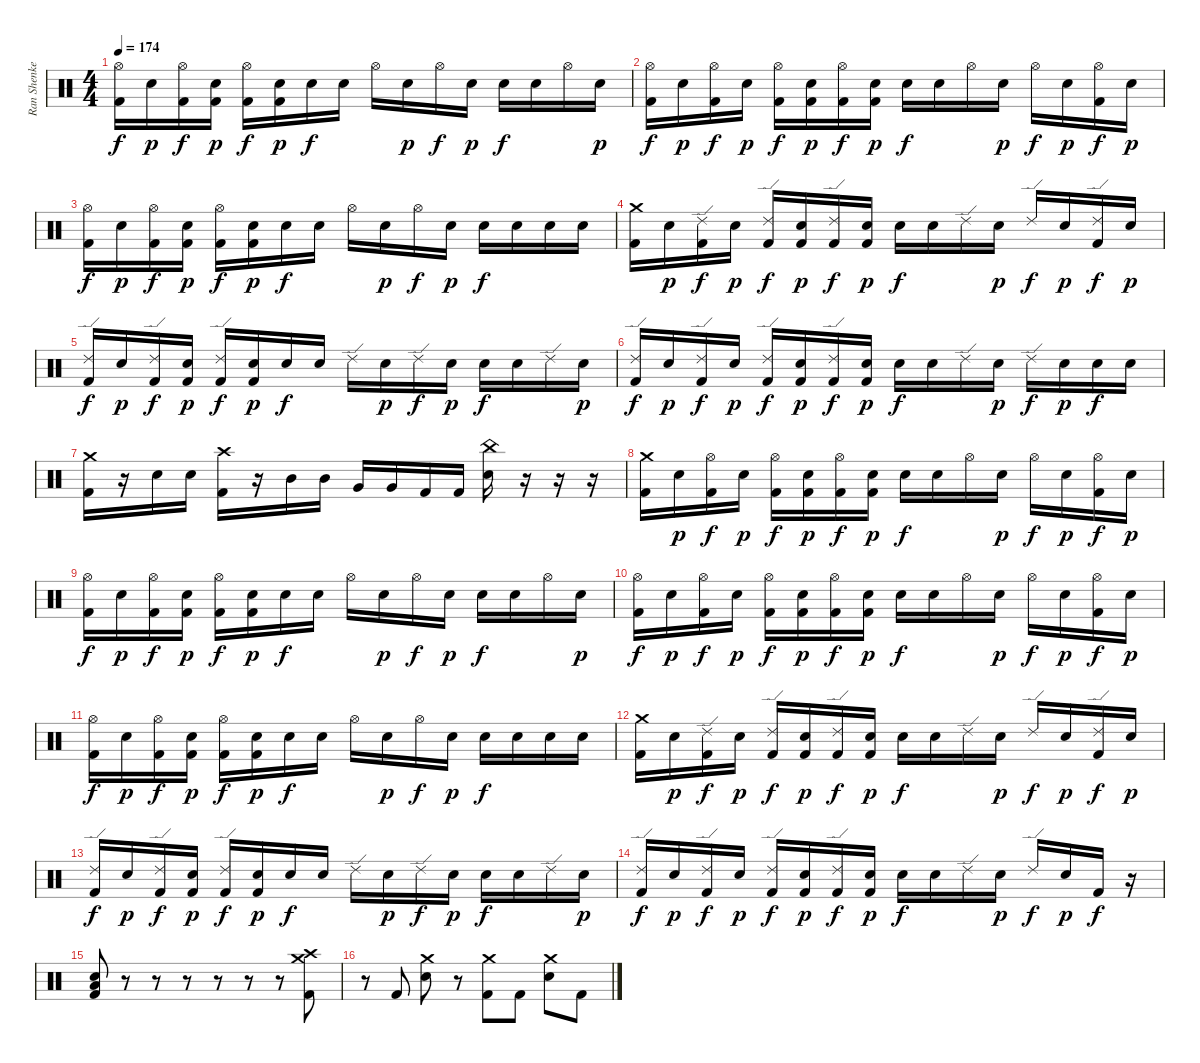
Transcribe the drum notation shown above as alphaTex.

\track ("Ran Shenkerman" "Ran Shenke") {instrument percussion}
\staff {score}
\articulation defaults
\ts (4 4)
\tempo 174
\clef neutral
\ks c
("Hi-Hat (open)" "Kick (hit) 2").16{dy f} "Snare (hit) 2".16{dy p} ("Hi-Hat (open)" "Kick (hit) 2").16{dy f} ("Snare (hit) 2" "Kick (hit) 2").16{dy p} ("Hi-Hat (open)" "Kick (hit) 2").16{dy f} ("Snare (hit) 2" "Kick (hit) 2").16{dy p} "Snare (hit) 2".16{dy f} "Snare (hit) 2".16 "Hi-Hat (open)".16 "Snare (hit) 2".16{dy p} "Hi-Hat (open)".16{dy f} "Snare (hit) 2".16{dy p} "Snare (hit) 2".16{dy f} "Snare (hit) 2".16 "Hi-Hat (open)".16 "Snare (hit) 2".16{dy p} |
("Hi-Hat (open)" "Kick (hit) 2").16{dy f} "Snare (hit) 2".16{dy p} ("Hi-Hat (open)" "Kick (hit) 2").16{dy f} "Snare (hit) 2".16{dy p} ("Hi-Hat (open)" "Kick (hit) 2").16{dy f} ("Snare (hit) 2" "Kick (hit) 2").16{dy p} ("Hi-Hat (open)" "Kick (hit) 2").16{dy f} ("Snare (hit) 2" "Kick (hit) 2").16{dy p} "Snare (hit) 2".16{dy f} "Snare (hit) 2".16 "Hi-Hat (open)".16 "Snare (hit) 2".16{dy p} "Hi-Hat (open)".16{dy f} "Snare (hit) 2".16{dy p} ("Hi-Hat (open)" "Kick (hit) 2").16{dy f} "Snare (hit) 2".16{dy p} |
("Hi-Hat (open)" "Kick (hit) 2").16{dy f} "Snare (hit) 2".16{dy p} ("Hi-Hat (open)" "Kick (hit) 2").16{dy f} ("Snare (hit) 2" "Kick (hit) 2").16{dy p} ("Hi-Hat (open)" "Kick (hit) 2").16{dy f} ("Snare (hit) 2" "Kick (hit) 2").16{dy p} "Snare (hit) 2".16{dy f} "Snare (hit) 2".16 "Hi-Hat (open)".16 "Snare (hit) 2".16{dy p} "Hi-Hat (open)".16{dy f} "Snare (hit) 2".16{dy p} "Snare (hit) 2".16{dy f} "Snare (hit) 2".16 "Snare (hit) 2".16 "Snare (hit) 2".16 |
("Crash medium (hit)" "Kick (hit) 2").16 "Snare (hit) 2".16{dy p} ("Ride (edge) 2" "Kick (hit) 2").16{dy f} "Snare (hit) 2".16{dy p} ("Ride (edge) 2" "Kick (hit) 2").16{dy f} ("Snare (hit) 2" "Kick (hit) 2").16{dy p} ("Ride (edge) 2" "Kick (hit) 2").16{dy f} ("Snare (hit) 2" "Kick (hit) 2").16{dy p} "Snare (hit) 2".16{dy f} "Snare (hit) 2".16 "Ride (edge) 2".16 "Snare (hit) 2".16{dy p} "Ride (edge) 2".16{dy f} "Snare (hit) 2".16{dy p} ("Ride (edge) 2" "Kick (hit) 2").16{dy f} "Snare (hit) 2".16{dy p} |
("Ride (edge) 2" "Kick (hit) 2").16{dy f} "Snare (hit) 2".16{dy p} ("Ride (edge) 2" "Kick (hit) 2").16{dy f} ("Snare (hit) 2" "Kick (hit) 2").16{dy p} ("Ride (edge) 2" "Kick (hit) 2").16{dy f} ("Snare (hit) 2" "Kick (hit) 2").16{dy p} "Snare (hit) 2".16{dy f} "Snare (hit) 2".16 "Ride (edge) 2".16 "Snare (hit) 2".16{dy p} "Ride (edge) 2".16{dy f} "Snare (hit) 2".16{dy p} "Snare (hit) 2".16{dy f} "Snare (hit) 2".16 "Ride (edge) 2".16 "Snare (hit) 2".16{dy p} |
("Ride (edge) 2" "Kick (hit) 2").16{dy f} "Snare (hit) 2".16{dy p} ("Ride (edge) 2" "Kick (hit) 2").16{dy f} "Snare (hit) 2".16{dy p} ("Ride (edge) 2" "Kick (hit) 2").16{dy f} ("Snare (hit) 2" "Kick (hit) 2").16{dy p} ("Ride (edge) 2" "Kick (hit) 2").16{dy f} ("Snare (hit) 2" "Kick (hit) 2").16{dy p} "Snare (hit) 2".16{dy f} "Snare (hit) 2".16 "Ride (edge) 2".16 "Snare (hit) 2".16{dy p} "Ride (edge) 2".16{dy f} "Snare (hit) 2".16{dy p} "Snare (hit) 2".16{dy f} "Snare (hit) 2".16 |
("Crash medium (hit)" "Kick (hit) 2").16 r.16 "Snare (hit) 2".16 "Snare (hit) 2".16 ("Crash high (hit)" "Kick (hit) 2").16 r.16 "Mid Tom (hit)".16 "Mid Tom (hit)".16 "Very Low Tom (hit)".16 "Very Low Tom (hit)".16 "Kick (hit) 2".16 "Kick (hit) 2".16 ("China (hit)" "Snare (hit) 2").16 r.16 r.16 r.16 |
("Crash medium (hit)" "Kick (hit) 2").16 "Snare (hit) 2".16{dy p} ("Hi-Hat (open)" "Kick (hit) 2").16{dy f} "Snare (hit) 2".16{dy p} ("Hi-Hat (open)" "Kick (hit) 2").16{dy f} ("Snare (hit) 2" "Kick (hit) 2").16{dy p} ("Hi-Hat (open)" "Kick (hit) 2").16{dy f} ("Snare (hit) 2" "Kick (hit) 2").16{dy p} "Snare (hit) 2".16{dy f} "Snare (hit) 2".16 "Hi-Hat (open)".16 "Snare (hit) 2".16{dy p} "Hi-Hat (open)".16{dy f} "Snare (hit) 2".16{dy p} ("Hi-Hat (open)" "Kick (hit) 2").16{dy f} "Snare (hit) 2".16{dy p} |
("Hi-Hat (open)" "Kick (hit) 2").16{dy f} "Snare (hit) 2".16{dy p} ("Hi-Hat (open)" "Kick (hit) 2").16{dy f} ("Snare (hit) 2" "Kick (hit) 2").16{dy p} ("Hi-Hat (open)" "Kick (hit) 2").16{dy f} ("Snare (hit) 2" "Kick (hit) 2").16{dy p} "Snare (hit) 2".16{dy f} "Snare (hit) 2".16 "Hi-Hat (open)".16 "Snare (hit) 2".16{dy p} "Hi-Hat (open)".16{dy f} "Snare (hit) 2".16{dy p} "Snare (hit) 2".16{dy f} "Snare (hit) 2".16 "Hi-Hat (open)".16 "Snare (hit) 2".16{dy p} |
("Hi-Hat (open)" "Kick (hit) 2").16{dy f} "Snare (hit) 2".16{dy p} ("Hi-Hat (open)" "Kick (hit) 2").16{dy f} "Snare (hit) 2".16{dy p} ("Hi-Hat (open)" "Kick (hit) 2").16{dy f} ("Snare (hit) 2" "Kick (hit) 2").16{dy p} ("Hi-Hat (open)" "Kick (hit) 2").16{dy f} ("Snare (hit) 2" "Kick (hit) 2").16{dy p} "Snare (hit) 2".16{dy f} "Snare (hit) 2".16 "Hi-Hat (open)".16 "Snare (hit) 2".16{dy p} "Hi-Hat (open)".16{dy f} "Snare (hit) 2".16{dy p} ("Hi-Hat (open)" "Kick (hit) 2").16{dy f} "Snare (hit) 2".16{dy p} |
("Hi-Hat (open)" "Kick (hit) 2").16{dy f} "Snare (hit) 2".16{dy p} ("Hi-Hat (open)" "Kick (hit) 2").16{dy f} ("Snare (hit) 2" "Kick (hit) 2").16{dy p} ("Hi-Hat (open)" "Kick (hit) 2").16{dy f} ("Snare (hit) 2" "Kick (hit) 2").16{dy p} "Snare (hit) 2".16{dy f} "Snare (hit) 2".16 "Hi-Hat (open)".16 "Snare (hit) 2".16{dy p} "Hi-Hat (open)".16{dy f} "Snare (hit) 2".16{dy p} "Snare (hit) 2".16{dy f} "Snare (hit) 2".16 "Snare (hit) 2".16 "Snare (hit) 2".16 |
("Crash medium (hit)" "Kick (hit) 2").16 "Snare (hit) 2".16{dy p} ("Ride (edge) 2" "Kick (hit) 2").16{dy f} "Snare (hit) 2".16{dy p} ("Ride (edge) 2" "Kick (hit) 2").16{dy f} ("Snare (hit) 2" "Kick (hit) 2").16{dy p} ("Ride (edge) 2" "Kick (hit) 2").16{dy f} ("Snare (hit) 2" "Kick (hit) 2").16{dy p} "Snare (hit) 2".16{dy f} "Snare (hit) 2".16 "Ride (edge) 2".16 "Snare (hit) 2".16{dy p} "Ride (edge) 2".16{dy f} "Snare (hit) 2".16{dy p} ("Ride (edge) 2" "Kick (hit) 2").16{dy f} "Snare (hit) 2".16{dy p} |
("Ride (edge) 2" "Kick (hit) 2").16{dy f} "Snare (hit) 2".16{dy p} ("Ride (edge) 2" "Kick (hit) 2").16{dy f} ("Snare (hit) 2" "Kick (hit) 2").16{dy p} ("Ride (edge) 2" "Kick (hit) 2").16{dy f} ("Snare (hit) 2" "Kick (hit) 2").16{dy p} "Snare (hit) 2".16{dy f} "Snare (hit) 2".16 "Ride (edge) 2".16 "Snare (hit) 2".16{dy p} "Ride (edge) 2".16{dy f} "Snare (hit) 2".16{dy p} "Snare (hit) 2".16{dy f} "Snare (hit) 2".16 "Ride (edge) 2".16 "Snare (hit) 2".16{dy p} |
("Ride (edge) 2" "Kick (hit) 2").16{dy f} "Snare (hit) 2".16{dy p} ("Ride (edge) 2" "Kick (hit) 2").16{dy f} "Snare (hit) 2".16{dy p} ("Ride (edge) 2" "Kick (hit) 2").16{dy f} ("Snare (hit) 2" "Kick (hit) 2").16{dy p} ("Ride (edge) 2" "Kick (hit) 2").16{dy f} ("Snare (hit) 2" "Kick (hit) 2").16{dy p} "Snare (hit) 2".16{dy f} "Snare (hit) 2".16 "Ride (edge) 2".16 "Snare (hit) 2".16{dy p} "Ride (edge) 2".16{dy f} "Snare (hit) 2".16{dy p} "Kick (hit) 2".16{dy f} r.16 |
("Snare (hit) 2" "Low Floor Tom (hit)" "Kick (hit) 2").8 r.8 r.8 r.8 r.8 r.8 r.8 ("Crash medium (hit)" "Crash high (hit)" "Kick (hit) 2").8 |
r.8 "Kick (hit) 2".8 ("Crash medium (hit)" "Snare (hit) 2").8 r.8 ("Crash medium (hit)" "Kick (hit) 2").8 "Kick (hit) 2".8 ("Crash medium (hit)" "Snare (hit) 2").8 "Kick (hit) 2".8
